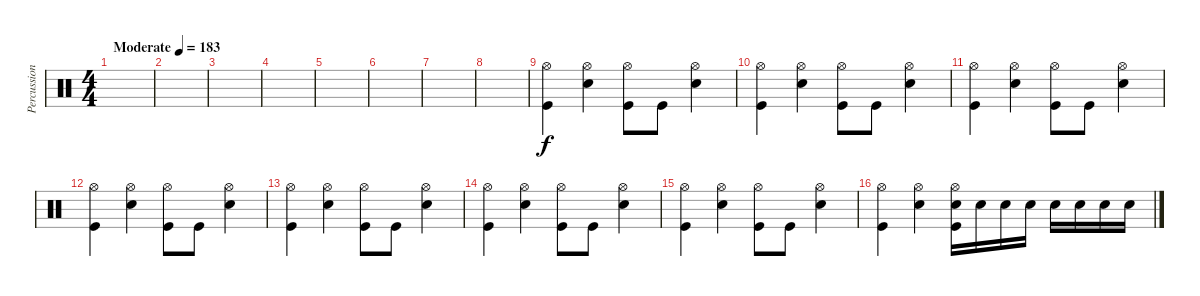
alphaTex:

\track ("Percussion" "Percussion") {instrument percussion}
\staff {score}
\articulation defaults
\ts (4 4)
\tempo (183 "Moderate")
\clef neutral
\ks c
|
|
|
|
|
|
|
|
("Hi-Hat (open)" "Kick (hit)").4 ("Hi-Hat (open)" "Electric Snare (hit)").4 ("Hi-Hat (open)" "Kick (hit)").8 "Kick (hit)".8 ("Hi-Hat (open)" "Electric Snare (hit)").4 |
("Hi-Hat (open)" "Kick (hit)").4 ("Hi-Hat (open)" "Electric Snare (hit)").4 ("Hi-Hat (open)" "Kick (hit)").8 "Kick (hit)".8 ("Hi-Hat (open)" "Electric Snare (hit)").4 |
("Hi-Hat (open)" "Kick (hit)").4 ("Hi-Hat (open)" "Electric Snare (hit)").4 ("Hi-Hat (open)" "Kick (hit)").8 "Kick (hit)".8 ("Hi-Hat (open)" "Electric Snare (hit)").4 |
("Hi-Hat (open)" "Kick (hit)").4 ("Hi-Hat (open)" "Electric Snare (hit)").4 ("Hi-Hat (open)" "Kick (hit)").8 "Kick (hit)".8 ("Hi-Hat (open)" "Electric Snare (hit)").4 |
("Hi-Hat (open)" "Kick (hit)").4 ("Hi-Hat (open)" "Electric Snare (hit)").4 ("Hi-Hat (open)" "Kick (hit)").8 "Kick (hit)".8 ("Hi-Hat (open)" "Electric Snare (hit)").4 |
("Hi-Hat (open)" "Kick (hit)").4 ("Hi-Hat (open)" "Electric Snare (hit)").4 ("Hi-Hat (open)" "Kick (hit)").8 "Kick (hit)".8 ("Hi-Hat (open)" "Electric Snare (hit)").4 |
("Hi-Hat (open)" "Kick (hit)").4 ("Hi-Hat (open)" "Electric Snare (hit)").4 ("Hi-Hat (open)" "Kick (hit)").8 "Kick (hit)".8 ("Hi-Hat (open)" "Electric Snare (hit)").4 |
("Hi-Hat (open)" "Kick (hit)").4 ("Hi-Hat (open)" "Electric Snare (hit)").4 ("Hi-Hat (open)" "Electric Snare (hit)" "Kick (hit)").16 "Electric Snare (hit)".16 "Electric Snare (hit)".16 "Electric Snare (hit)".16 "Electric Snare (hit)".16 "Electric Snare (hit)".16 "Electric Snare (hit)".16 "Electric Snare (hit)".16
